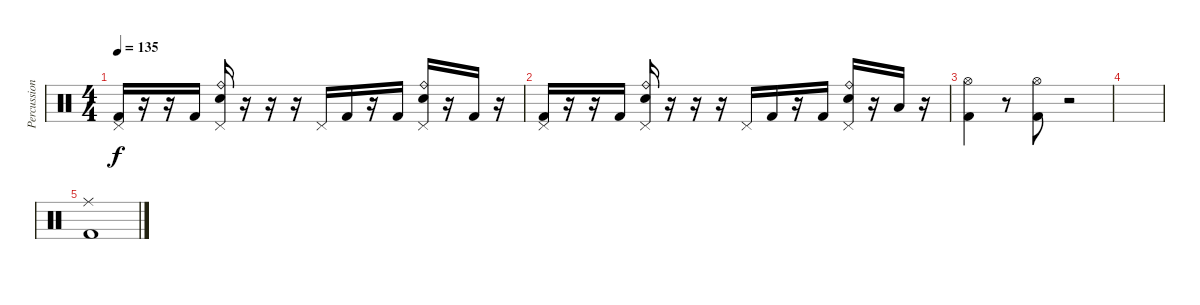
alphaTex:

\track ("Percussion" "Percussion") {instrument percussion}
\staff {score}
\articulation defaults
\ts (4 4)
\tempo 135
\clef neutral
\ks c
("Pedal Hi-Hat (hit)" "Kick (hit) 2").16{dy f} r.16 r.16 "Kick (hit) 2".16 ("Ride (bell)" "Electric Snare (hit)" "Pedal Hi-Hat (hit)").16 r.16 r.16 r.16 "Pedal Hi-Hat (hit)".16 "Kick (hit) 2".16 r.16 "Kick (hit) 2".16 ("Ride (bell)" "Electric Snare (hit)" "Pedal Hi-Hat (hit)").16 r.16 "Kick (hit) 2".16 r.16 |
("Pedal Hi-Hat (hit)" "Kick (hit) 2").16 r.16 r.16 "Kick (hit) 2".16 ("Ride (bell)" "Electric Snare (hit)" "Pedal Hi-Hat (hit)").16 r.16 r.16 r.16 "Pedal Hi-Hat (hit)".16 "Kick (hit) 2".16 r.16 "Kick (hit) 2".16 ("Ride (bell)" "Electric Snare (hit)" "Pedal Hi-Hat (hit)").16 r.16 "Low Tom (hit)".16 r.16 |
("Hi-Hat (open)" "Kick (hit) 2").4 r.8 ("Hi-Hat (open)" "Kick (hit) 2").8 r.2 |
|
("Ride (middle)" "Kick (hit) 2").1
